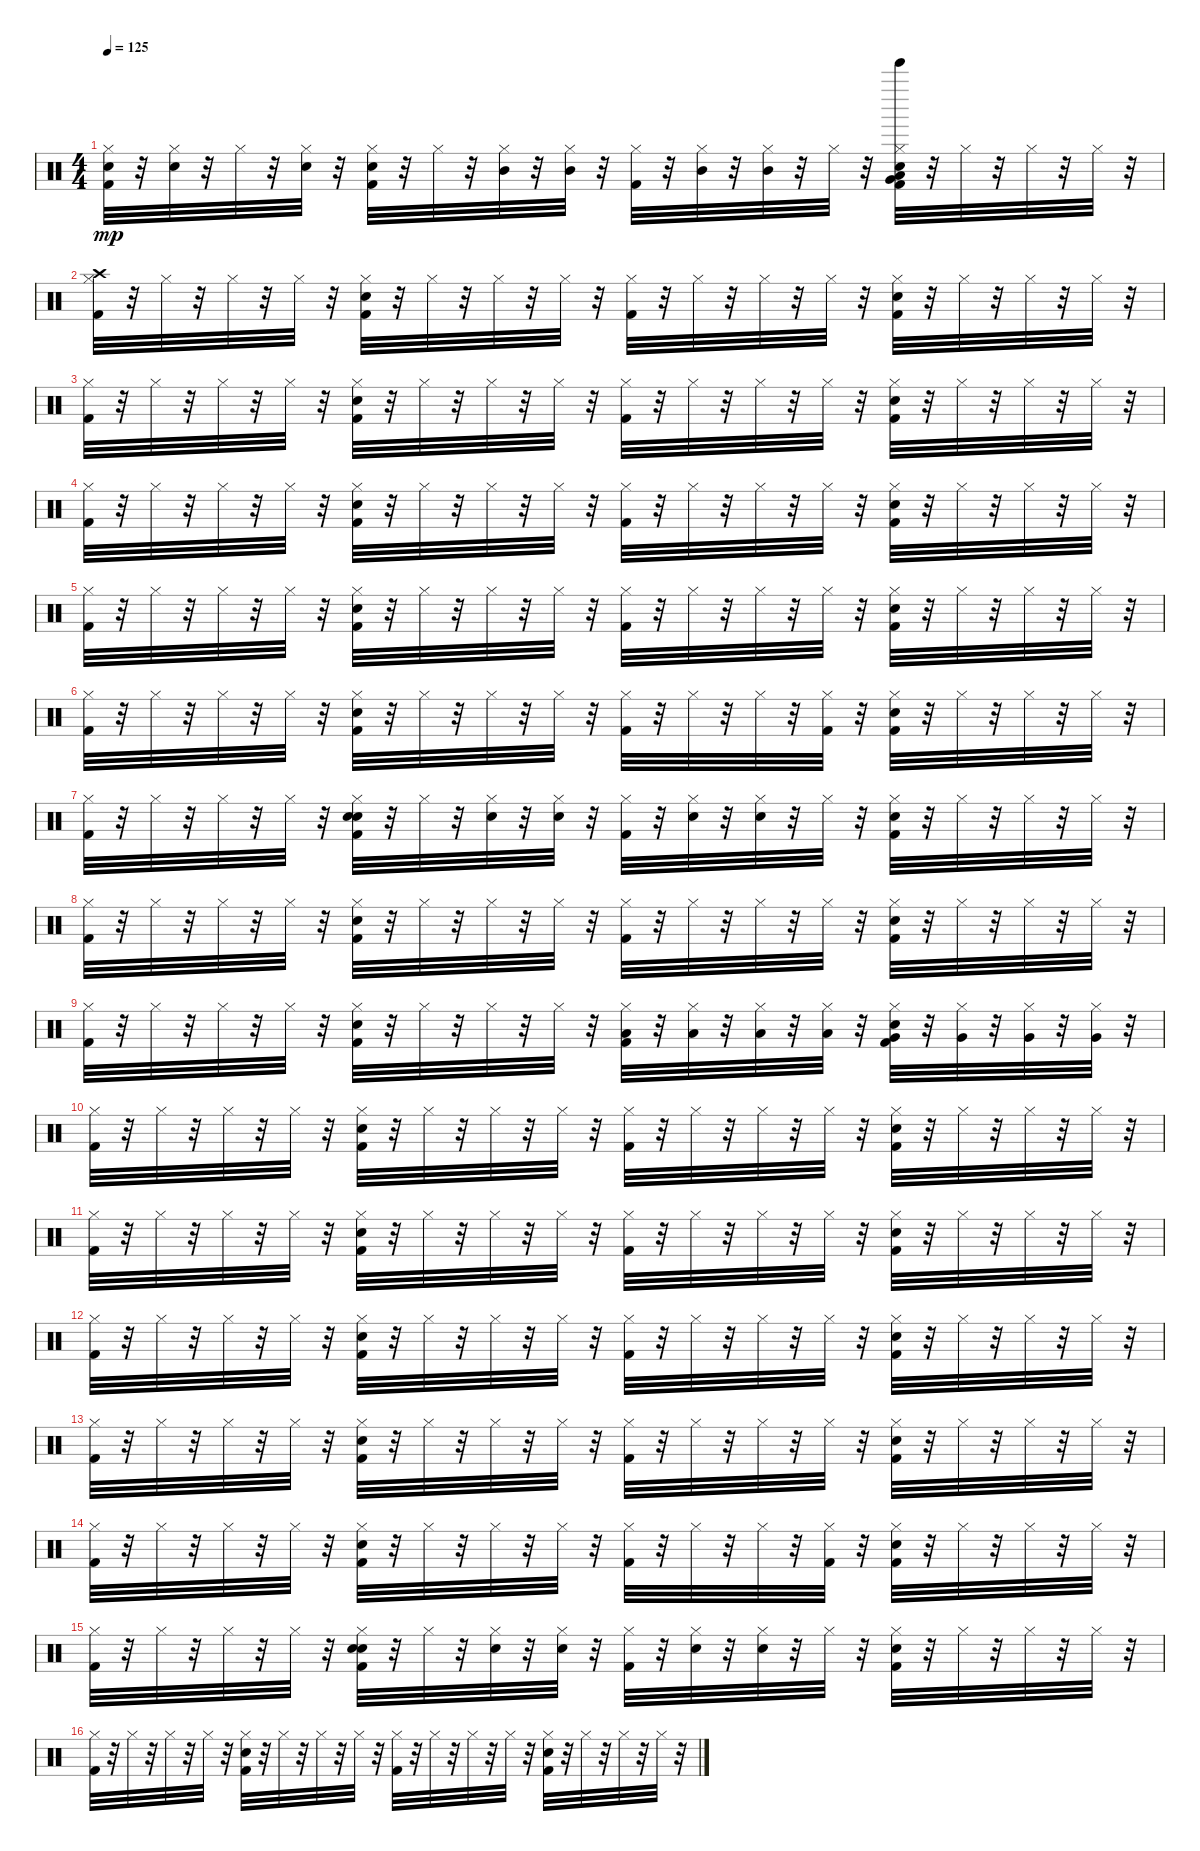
\track "" {instrument percussion}
\staff {score}
\articulation defaults
\ts (4 4)
\tempo 125
\clef neutral
\ks c
("Hand Clap (hit)" "Kick (hit) 2" "Hi-Hat (closed)").32{dy mp} r.32 ("Hand Clap (hit)" "Hi-Hat (closed)").32 r.32 "Hi-Hat (closed)".32 r.32 ("Hand Clap (hit)" "Hi-Hat (closed)").32 r.32 ("Kick (hit) 2" "Snare (hit) 2" "Hi-Hat (closed)").32 r.32 "Hi-Hat (closed)".32 r.32 ("Mid Tom (hit)" "Hi-Hat (closed)").32 r.32 ("Mid Tom (hit)" "Hi-Hat (closed)").32 r.32 ("Kick (hit) 2" "Hi-Hat (closed)").32 r.32 ("Mid Tom (hit)" "Hi-Hat (closed)").32 r.32 ("Hi-Hat (closed)" "Mid Tom (hit)").32 r.32 "Hi-Hat (closed)".32 r.32 ("Low Tom (hit)" "Kick (hit) 2" "Snare (hit) 2" "Hi-Hat (closed)" "Very Low Tom (hit)" "Tinkle Bell (hit)").32 r.32 "Hi-Hat (closed)".32 r.32 "Hi-Hat (closed)".32 r.32 "Hi-Hat (closed)".32 r.32 |
("Crash high (hit)" "Kick (hit) 2" "Hi-Hat (closed)").32 r.32 "Hi-Hat (closed)".32 r.32 "Hi-Hat (closed)".32 r.32 "Hi-Hat (closed)".32 r.32 ("Kick (hit) 2" "Snare (hit) 2" "Hi-Hat (closed)").32 r.32 "Hi-Hat (closed)".32 r.32 "Hi-Hat (closed)".32 r.32 "Hi-Hat (closed)".32 r.32 ("Kick (hit) 2" "Hi-Hat (closed)").32 r.32 "Hi-Hat (closed)".32 r.32 "Hi-Hat (closed)".32 r.32 "Hi-Hat (closed)".32 r.32 ("Kick (hit) 2" "Snare (hit) 2" "Hi-Hat (closed)").32 r.32 "Hi-Hat (closed)".32 r.32 "Hi-Hat (closed)".32 r.32 "Hi-Hat (closed)".32 r.32 |
("Kick (hit) 2" "Hi-Hat (closed)").32 r.32 "Hi-Hat (closed)".32 r.32 "Hi-Hat (closed)".32 r.32 "Hi-Hat (closed)".32 r.32 ("Kick (hit) 2" "Snare (hit) 2" "Hi-Hat (closed)").32 r.32 "Hi-Hat (closed)".32 r.32 "Hi-Hat (closed)".32 r.32 "Hi-Hat (closed)".32 r.32 ("Kick (hit) 2" "Hi-Hat (closed)").32 r.32 "Hi-Hat (closed)".32 r.32 "Hi-Hat (closed)".32 r.32 "Hi-Hat (closed)".32 r.32 ("Kick (hit) 2" "Snare (hit) 2" "Hi-Hat (closed)").32 r.32 "Hi-Hat (closed)".32 r.32 "Hi-Hat (closed)".32 r.32 "Hi-Hat (closed)".32 r.32 |
("Kick (hit) 2" "Hi-Hat (closed)").32 r.32 "Hi-Hat (closed)".32 r.32 "Hi-Hat (closed)".32 r.32 "Hi-Hat (closed)".32 r.32 ("Kick (hit) 2" "Snare (hit) 2" "Hi-Hat (closed)").32 r.32 "Hi-Hat (closed)".32 r.32 "Hi-Hat (closed)".32 r.32 "Hi-Hat (closed)".32 r.32 ("Kick (hit) 2" "Hi-Hat (closed)").32 r.32 "Hi-Hat (closed)".32 r.32 "Hi-Hat (closed)".32 r.32 "Hi-Hat (closed)".32 r.32 ("Kick (hit) 2" "Snare (hit) 2" "Hi-Hat (closed)").32 r.32 "Hi-Hat (closed)".32 r.32 "Hi-Hat (closed)".32 r.32 "Hi-Hat (closed)".32 r.32 |
("Kick (hit) 2" "Hi-Hat (closed)").32 r.32 "Hi-Hat (closed)".32 r.32 "Hi-Hat (closed)".32 r.32 "Hi-Hat (closed)".32 r.32 ("Kick (hit) 2" "Snare (hit) 2" "Hi-Hat (closed)").32 r.32 "Hi-Hat (closed)".32 r.32 "Hi-Hat (closed)".32 r.32 "Hi-Hat (closed)".32 r.32 ("Kick (hit) 2" "Hi-Hat (closed)").32 r.32 "Hi-Hat (closed)".32 r.32 "Hi-Hat (closed)".32 r.32 "Hi-Hat (closed)".32 r.32 ("Kick (hit) 2" "Snare (hit) 2" "Hi-Hat (closed)").32 r.32 "Hi-Hat (closed)".32 r.32 "Hi-Hat (closed)".32 r.32 "Hi-Hat (closed)".32 r.32 |
("Kick (hit) 2" "Hi-Hat (closed)").32 r.32 "Hi-Hat (closed)".32 r.32 "Hi-Hat (closed)".32 r.32 "Hi-Hat (closed)".32 r.32 ("Kick (hit) 2" "Snare (hit) 2" "Hi-Hat (closed)").32 r.32 "Hi-Hat (closed)".32 r.32 "Hi-Hat (closed)".32 r.32 "Hi-Hat (closed)".32 r.32 ("Kick (hit) 2" "Hi-Hat (closed)").32 r.32 "Hi-Hat (closed)".32 r.32 "Hi-Hat (closed)".32 r.32 ("Kick (hit) 2" "Hi-Hat (closed)").32 r.32 ("Kick (hit) 2" "Snare (hit) 2" "Hi-Hat (closed)").32 r.32 "Hi-Hat (closed)".32 r.32 "Hi-Hat (closed)".32 r.32 "Hi-Hat (closed)".32 r.32 |
("Kick (hit) 2" "Hi-Hat (closed)").32 r.32 "Hi-Hat (closed)".32 r.32 "Hi-Hat (closed)".32 r.32 "Hi-Hat (closed)".32 r.32 ("Hand Clap (hit)" "Kick (hit) 2" "Snare (hit) 2" "Hi-Hat (closed)").32 r.32 "Hi-Hat (closed)".32 r.32 ("Hand Clap (hit)" "Hi-Hat (closed)").32 r.32 ("Hand Clap (hit)" "Hi-Hat (closed)").32 r.32 ("Kick (hit) 2" "Hi-Hat (closed)").32 r.32 ("Hand Clap (hit)" "Hi-Hat (closed)").32 r.32 ("Hand Clap (hit)" "Hi-Hat (closed)").32 r.32 "Hi-Hat (closed)".32 r.32 ("Kick (hit) 2" "Snare (hit) 2" "Hi-Hat (closed)").32 r.32 "Hi-Hat (closed)".32 r.32 "Hi-Hat (closed)".32 r.32 "Hi-Hat (closed)".32 r.32 |
("Kick (hit) 2" "Hi-Hat (closed)").32 r.32 "Hi-Hat (closed)".32 r.32 "Hi-Hat (closed)".32 r.32 "Hi-Hat (closed)".32 r.32 ("Kick (hit) 2" "Snare (hit) 2" "Hi-Hat (closed)").32 r.32 "Hi-Hat (closed)".32 r.32 "Hi-Hat (closed)".32 r.32 "Hi-Hat (closed)".32 r.32 ("Kick (hit) 2" "Hi-Hat (closed)").32 r.32 "Hi-Hat (closed)".32 r.32 "Hi-Hat (closed)".32 r.32 "Hi-Hat (closed)".32 r.32 ("Kick (hit) 2" "Snare (hit) 2" "Hi-Hat (closed)").32 r.32 "Hi-Hat (closed)".32 r.32 "Hi-Hat (closed)".32 r.32 "Hi-Hat (closed)".32 r.32 |
("Kick (hit) 2" "Hi-Hat (closed)").32 r.32 "Hi-Hat (closed)".32 r.32 "Hi-Hat (closed)".32 r.32 "Hi-Hat (closed)".32 r.32 ("Kick (hit) 2" "Snare (hit) 2" "Hi-Hat (closed)").32 r.32 "Hi-Hat (closed)".32 r.32 "Hi-Hat (closed)".32 r.32 "Hi-Hat (closed)".32 r.32 ("Low Tom (hit)" "Kick (hit) 2" "Hi-Hat (closed)").32 r.32 ("Low Tom (hit)" "Hi-Hat (closed)").32 r.32 ("Low Tom (hit)" "Hi-Hat (closed)").32 r.32 ("Low Tom (hit)" "Hi-Hat (closed)").32 r.32 ("Very Low Tom (hit)" "Kick (hit) 2" "Snare (hit) 2" "Hi-Hat (closed)").32 r.32 ("Very Low Tom (hit)" "Hi-Hat (closed)").32 r.32 ("Very Low Tom (hit)" "Hi-Hat (closed)").32 r.32 ("Very Low Tom (hit)" "Hi-Hat (closed)").32 r.32 |
("Kick (hit) 2" "Hi-Hat (closed)").32 r.32 "Hi-Hat (closed)".32 r.32 "Hi-Hat (closed)".32 r.32 "Hi-Hat (closed)".32 r.32 ("Kick (hit) 2" "Snare (hit) 2" "Hi-Hat (closed)").32 r.32 "Hi-Hat (closed)".32 r.32 "Hi-Hat (closed)".32 r.32 "Hi-Hat (closed)".32 r.32 ("Kick (hit) 2" "Hi-Hat (closed)").32 r.32 "Hi-Hat (closed)".32 r.32 "Hi-Hat (closed)".32 r.32 "Hi-Hat (closed)".32 r.32 ("Kick (hit) 2" "Snare (hit) 2" "Hi-Hat (closed)").32 r.32 "Hi-Hat (closed)".32 r.32 "Hi-Hat (closed)".32 r.32 "Hi-Hat (closed)".32 r.32 |
("Kick (hit) 2" "Hi-Hat (closed)").32 r.32 "Hi-Hat (closed)".32 r.32 "Hi-Hat (closed)".32 r.32 "Hi-Hat (closed)".32 r.32 ("Kick (hit) 2" "Snare (hit) 2" "Hi-Hat (closed)").32 r.32 "Hi-Hat (closed)".32 r.32 "Hi-Hat (closed)".32 r.32 "Hi-Hat (closed)".32 r.32 ("Kick (hit) 2" "Hi-Hat (closed)").32 r.32 "Hi-Hat (closed)".32 r.32 "Hi-Hat (closed)".32 r.32 "Hi-Hat (closed)".32 r.32 ("Kick (hit) 2" "Snare (hit) 2" "Hi-Hat (closed)").32 r.32 "Hi-Hat (closed)".32 r.32 "Hi-Hat (closed)".32 r.32 "Hi-Hat (closed)".32 r.32 |
("Kick (hit) 2" "Hi-Hat (closed)").32 r.32 "Hi-Hat (closed)".32 r.32 "Hi-Hat (closed)".32 r.32 "Hi-Hat (closed)".32 r.32 ("Kick (hit) 2" "Snare (hit) 2" "Hi-Hat (closed)").32 r.32 "Hi-Hat (closed)".32 r.32 "Hi-Hat (closed)".32 r.32 "Hi-Hat (closed)".32 r.32 ("Kick (hit) 2" "Hi-Hat (closed)").32 r.32 "Hi-Hat (closed)".32 r.32 "Hi-Hat (closed)".32 r.32 "Hi-Hat (closed)".32 r.32 ("Kick (hit) 2" "Snare (hit) 2" "Hi-Hat (closed)").32 r.32 "Hi-Hat (closed)".32 r.32 "Hi-Hat (closed)".32 r.32 "Hi-Hat (closed)".32 r.32 |
("Kick (hit) 2" "Hi-Hat (closed)").32 r.32 "Hi-Hat (closed)".32 r.32 "Hi-Hat (closed)".32 r.32 "Hi-Hat (closed)".32 r.32 ("Kick (hit) 2" "Snare (hit) 2" "Hi-Hat (closed)").32 r.32 "Hi-Hat (closed)".32 r.32 "Hi-Hat (closed)".32 r.32 "Hi-Hat (closed)".32 r.32 ("Kick (hit) 2" "Hi-Hat (closed)").32 r.32 "Hi-Hat (closed)".32 r.32 "Hi-Hat (closed)".32 r.32 "Hi-Hat (closed)".32 r.32 ("Kick (hit) 2" "Snare (hit) 2" "Hi-Hat (closed)").32 r.32 "Hi-Hat (closed)".32 r.32 "Hi-Hat (closed)".32 r.32 "Hi-Hat (closed)".32 r.32 |
("Kick (hit) 2" "Hi-Hat (closed)").32 r.32 "Hi-Hat (closed)".32 r.32 "Hi-Hat (closed)".32 r.32 "Hi-Hat (closed)".32 r.32 ("Kick (hit) 2" "Snare (hit) 2" "Hi-Hat (closed)").32 r.32 "Hi-Hat (closed)".32 r.32 "Hi-Hat (closed)".32 r.32 "Hi-Hat (closed)".32 r.32 ("Kick (hit) 2" "Hi-Hat (closed)").32 r.32 "Hi-Hat (closed)".32 r.32 "Hi-Hat (closed)".32 r.32 ("Kick (hit) 2" "Hi-Hat (closed)").32 r.32 ("Kick (hit) 2" "Snare (hit) 2" "Hi-Hat (closed)").32 r.32 "Hi-Hat (closed)".32 r.32 "Hi-Hat (closed)".32 r.32 "Hi-Hat (closed)".32 r.32 |
("Kick (hit) 2" "Hi-Hat (closed)").32 r.32 "Hi-Hat (closed)".32 r.32 "Hi-Hat (closed)".32 r.32 "Hi-Hat (closed)".32 r.32 ("Hand Clap (hit)" "Kick (hit) 2" "Snare (hit) 2" "Hi-Hat (closed)").32 r.32 "Hi-Hat (closed)".32 r.32 ("Hand Clap (hit)" "Hi-Hat (closed)").32 r.32 ("Hand Clap (hit)" "Hi-Hat (closed)").32 r.32 ("Kick (hit) 2" "Hi-Hat (closed)").32 r.32 ("Hand Clap (hit)" "Hi-Hat (closed)").32 r.32 ("Hand Clap (hit)" "Hi-Hat (closed)").32 r.32 "Hi-Hat (closed)".32 r.32 ("Kick (hit) 2" "Snare (hit) 2" "Hi-Hat (closed)").32 r.32 "Hi-Hat (closed)".32 r.32 "Hi-Hat (closed)".32 r.32 "Hi-Hat (closed)".32 r.32 |
("Kick (hit) 2" "Hi-Hat (closed)").32 r.32 "Hi-Hat (closed)".32 r.32 "Hi-Hat (closed)".32 r.32 "Hi-Hat (closed)".32 r.32 ("Kick (hit) 2" "Snare (hit) 2" "Hi-Hat (closed)").32 r.32 "Hi-Hat (closed)".32 r.32 "Hi-Hat (closed)".32 r.32 "Hi-Hat (closed)".32 r.32 ("Kick (hit) 2" "Hi-Hat (closed)").32 r.32 "Hi-Hat (closed)".32 r.32 "Hi-Hat (closed)".32 r.32 "Hi-Hat (closed)".32 r.32 ("Kick (hit) 2" "Snare (hit) 2" "Hi-Hat (closed)").32 r.32 "Hi-Hat (closed)".32 r.32 "Hi-Hat (closed)".32 r.32 "Hi-Hat (closed)".32 r.32
